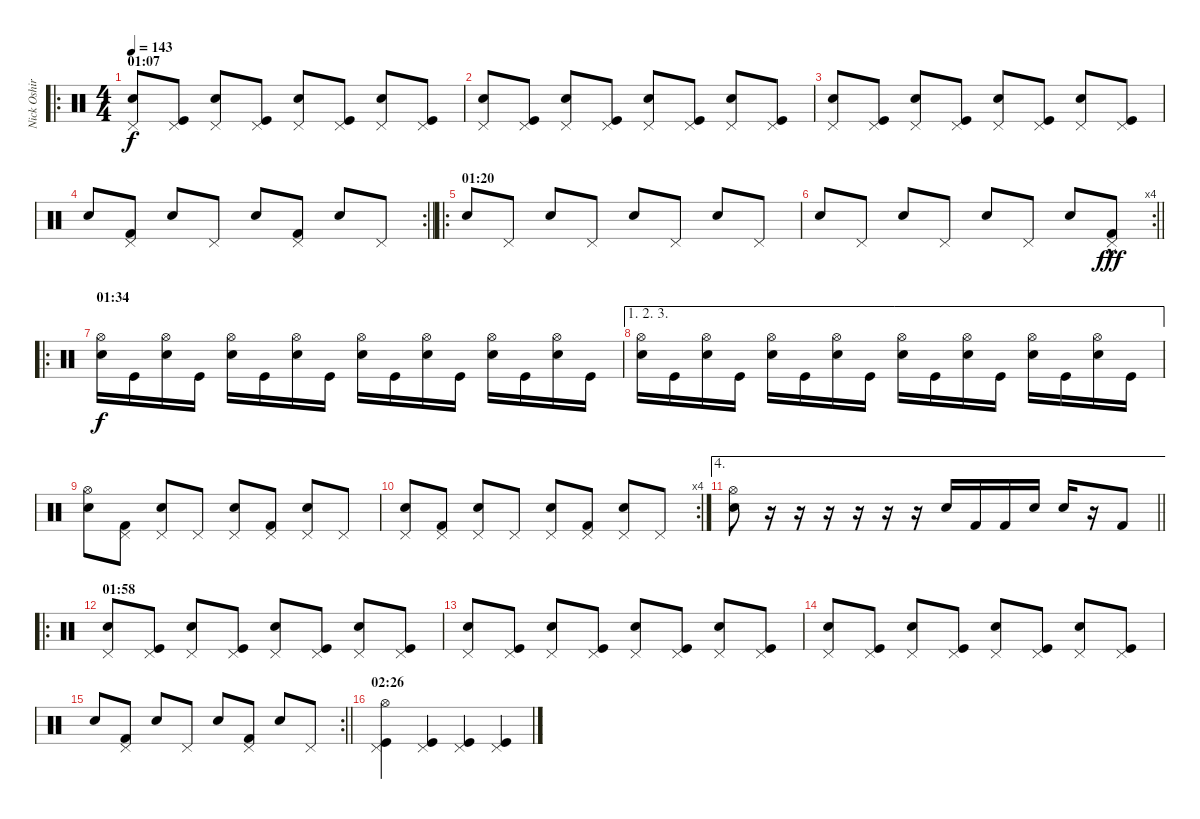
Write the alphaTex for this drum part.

\track ("Nick Oshiro" "Nick Oshir") {instrument percussion}
\staff {score}
\articulation defaults
\ro
\ts (4 4)
\section ("" "01:07")
\tempo 143
\clef neutral
\ks c
("Pedal Hi-Hat (hit)" "Snare (hit) 2").8{dy f} ("Pedal Hi-Hat (hit)" "Kick (hit)").8 ("Pedal Hi-Hat (hit)" "Snare (hit) 2").8 ("Pedal Hi-Hat (hit)" "Kick (hit)").8 ("Pedal Hi-Hat (hit)" "Snare (hit) 2").8 ("Pedal Hi-Hat (hit)" "Kick (hit)").8 ("Pedal Hi-Hat (hit)" "Snare (hit) 2").8 ("Pedal Hi-Hat (hit)" "Kick (hit)").8 |
("Pedal Hi-Hat (hit)" "Snare (hit) 2").8 ("Pedal Hi-Hat (hit)" "Kick (hit)").8 ("Pedal Hi-Hat (hit)" "Snare (hit) 2").8 ("Pedal Hi-Hat (hit)" "Kick (hit)").8 ("Pedal Hi-Hat (hit)" "Snare (hit) 2").8 ("Pedal Hi-Hat (hit)" "Kick (hit)").8 ("Pedal Hi-Hat (hit)" "Snare (hit) 2").8 ("Pedal Hi-Hat (hit)" "Kick (hit)").8 |
("Pedal Hi-Hat (hit)" "Snare (hit) 2").8 ("Pedal Hi-Hat (hit)" "Kick (hit)").8 ("Pedal Hi-Hat (hit)" "Snare (hit) 2").8 ("Pedal Hi-Hat (hit)" "Kick (hit)").8 ("Pedal Hi-Hat (hit)" "Snare (hit) 2").8 ("Pedal Hi-Hat (hit)" "Kick (hit)").8 ("Pedal Hi-Hat (hit)" "Snare (hit) 2").8 ("Pedal Hi-Hat (hit)" "Kick (hit)").8 |
\rc 2
\barLineRight lightlight "Snare (hit) 2".8
("Pedal Hi-Hat (hit)" "Kick (hit) 2").8 "Snare (hit) 2".8 "Pedal Hi-Hat (hit)".8 "Snare (hit) 2".8 ("Pedal Hi-Hat (hit)" "Kick (hit) 2").8 "Snare (hit) 2".8 "Pedal Hi-Hat (hit)".8 |
\ro
\section ("" "01:20")
"Snare (hit) 2".8 "Pedal Hi-Hat (hit)".8 "Snare (hit) 2".8 "Pedal Hi-Hat (hit)".8 "Snare (hit) 2".8 "Pedal Hi-Hat (hit)".8 "Snare (hit) 2".8 "Pedal Hi-Hat (hit)".8 |
\rc 4
\barLineRight lightlight "Snare (hit) 2".8 "Pedal Hi-Hat (hit)".8 "Snare (hit) 2".8 "Pedal Hi-Hat (hit)".8 "Snare (hit) 2".8 "Pedal Hi-Hat (hit)".8 "Snare (hit) 2".8
("Pedal Hi-Hat (hit)" "Kick (hit) 2"{hac}).8{dy fff} |
\ro
\section ("" "01:34")
("Snare (hit) 2" "Hi-Hat (open)").16{dy f} "Kick (hit)".16 ("Snare (hit) 2" "Hi-Hat (open)").16 "Kick (hit)".16 ("Snare (hit) 2" "Hi-Hat (open)").16 "Kick (hit)".16 ("Snare (hit) 2" "Hi-Hat (open)").16 "Kick (hit)".16 ("Snare (hit) 2" "Hi-Hat (open)").16 "Kick (hit)".16 ("Snare (hit) 2" "Hi-Hat (open)").16 "Kick (hit)".16 ("Snare (hit) 2" "Hi-Hat (open)").16 "Kick (hit)".16 ("Snare (hit) 2" "Hi-Hat (open)").16 "Kick (hit)".16 |
\ae (1 2 3)
("Snare (hit) 2" "Hi-Hat (open)").16 "Kick (hit)".16 ("Snare (hit) 2" "Hi-Hat (open)").16 "Kick (hit)".16 ("Snare (hit) 2" "Hi-Hat (open)").16 "Kick (hit)".16 ("Snare (hit) 2" "Hi-Hat (open)").16 "Kick (hit)".16 ("Snare (hit) 2" "Hi-Hat (open)").16 "Kick (hit)".16 ("Snare (hit) 2" "Hi-Hat (open)").16 "Kick (hit)".16 ("Snare (hit) 2" "Hi-Hat (open)").16 "Kick (hit)".16 ("Snare (hit) 2" "Hi-Hat (open)").16 "Kick (hit)".16 |
("Hi-Hat (open)" "Snare (hit) 2").8 ("Pedal Hi-Hat (hit)" "Kick (hit) 2").8 ("Pedal Hi-Hat (hit)" "Snare (hit) 2").8 "Pedal Hi-Hat (hit)".8 ("Pedal Hi-Hat (hit)" "Snare (hit) 2").8 ("Pedal Hi-Hat (hit)" "Kick (hit) 2").8 ("Pedal Hi-Hat (hit)" "Snare (hit) 2").8 "Pedal Hi-Hat (hit)".8 |
\rc 4
("Pedal Hi-Hat (hit)" "Snare (hit) 2").8 ("Pedal Hi-Hat (hit)" "Kick (hit) 2").8 ("Pedal Hi-Hat (hit)" "Snare (hit) 2").8 "Pedal Hi-Hat (hit)".8 ("Pedal Hi-Hat (hit)" "Snare (hit) 2").8 ("Pedal Hi-Hat (hit)" "Kick (hit) 2").8 ("Pedal Hi-Hat (hit)" "Snare (hit) 2").8 "Pedal Hi-Hat (hit)".8 |
\ae 4
\barLineRight lightlight
("Snare (hit) 2" "Hi-Hat (open)").8 r.16 r.16 r.16 r.16 r.16 r.16 "Electric Snare (hit)".16 "Kick (hit) 2".16 "Kick (hit) 2".16 "Snare (hit) 2".16 "Electric Snare (hit)".16 r.16 "Kick (hit) 2".8 |
\ro
\section ("" "01:58")
("Pedal Hi-Hat (hit)" "Snare (hit) 2").8 ("Pedal Hi-Hat (hit)" "Kick (hit)").8 ("Pedal Hi-Hat (hit)" "Snare (hit) 2").8 ("Pedal Hi-Hat (hit)" "Kick (hit)").8 ("Pedal Hi-Hat (hit)" "Snare (hit) 2").8 ("Pedal Hi-Hat (hit)" "Kick (hit)").8 ("Pedal Hi-Hat (hit)" "Snare (hit) 2").8 ("Pedal Hi-Hat (hit)" "Kick (hit)").8 |
("Pedal Hi-Hat (hit)" "Snare (hit) 2").8 ("Pedal Hi-Hat (hit)" "Kick (hit)").8 ("Pedal Hi-Hat (hit)" "Snare (hit) 2").8 ("Pedal Hi-Hat (hit)" "Kick (hit)").8 ("Pedal Hi-Hat (hit)" "Snare (hit) 2").8 ("Pedal Hi-Hat (hit)" "Kick (hit)").8 ("Pedal Hi-Hat (hit)" "Snare (hit) 2").8 ("Pedal Hi-Hat (hit)" "Kick (hit)").8 |
("Pedal Hi-Hat (hit)" "Snare (hit) 2").8 ("Pedal Hi-Hat (hit)" "Kick (hit)").8 ("Pedal Hi-Hat (hit)" "Snare (hit) 2").8 ("Pedal Hi-Hat (hit)" "Kick (hit)").8 ("Pedal Hi-Hat (hit)" "Snare (hit) 2").8 ("Pedal Hi-Hat (hit)" "Kick (hit)").8 ("Pedal Hi-Hat (hit)" "Snare (hit) 2").8 ("Pedal Hi-Hat (hit)" "Kick (hit)").8 |
\rc 2
\barLineRight lightlight "Snare (hit) 2".8
("Pedal Hi-Hat (hit)" "Kick (hit) 2").8 "Snare (hit) 2".8 "Pedal Hi-Hat (hit)".8 "Snare (hit) 2".8 ("Pedal Hi-Hat (hit)" "Kick (hit) 2").8 "Snare (hit) 2".8 "Pedal Hi-Hat (hit)".8 |
\section ("" "02:26")
("Kick (hit)" "Pedal Hi-Hat (hit)" "Hi-Hat (open)").4 ("Kick (hit)" "Pedal Hi-Hat (hit)").4 ("Kick (hit)" "Pedal Hi-Hat (hit)").4 ("Kick (hit)" "Pedal Hi-Hat (hit)").4
